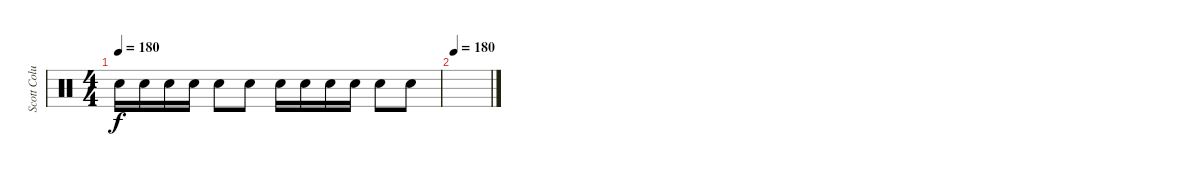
\track ("Scott Columbus" "Scott Colu") {instrument percussion}
\staff {score}
\articulation defaults
\ts (4 4)
\tempo 180
\clef neutral
\ks c "Snare (hit) 2".16{dy f} "Snare (hit) 2".16 "Snare (hit) 2".16 "Snare (hit) 2".16 "Snare (hit) 2".8 "Snare (hit) 2".8 "Snare (hit) 2".16 "Snare (hit) 2".16 "Snare (hit) 2".16 "Snare (hit) 2".16 "Snare (hit) 2".8 "Snare (hit) 2".8
|
\tempo 180
